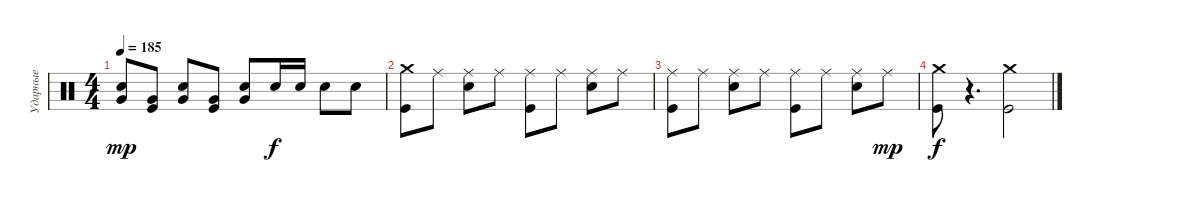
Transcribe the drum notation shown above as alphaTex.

\track ("Ударные" "Ударные") {instrument percussion}
\staff {score}
\articulation defaults
\ts (4 4)
\tempo 185
\clef neutral
\ks c
("Very Low Tom (hit)" "Electric Snare (hit)").8{dy mp} ("Very Low Tom (hit)" "Kick (hit)").8 ("Very Low Tom (hit)" "Electric Snare (hit)").8 ("Very Low Tom (hit)" "Kick (hit)").8 ("Very Low Tom (hit)" "Electric Snare (hit)").8 "Electric Snare (hit)".16{dy f} "Electric Snare (hit)".16 "Electric Snare (hit)".8 "Electric Snare (hit)".8 |
("Crash medium (hit)" "Kick (hit)").8 "Ride (middle)".8 ("Ride (middle)" "Electric Snare (hit)").8 "Ride (middle)".8 ("Ride (middle)" "Kick (hit)").8 "Ride (middle)".8 ("Ride (middle)" "Electric Snare (hit)").8 "Ride (middle)".8 |
("Ride (middle)" "Kick (hit)").8 "Ride (middle)".8 ("Ride (middle)" "Electric Snare (hit)").8 "Ride (middle)".8 ("Ride (middle)" "Kick (hit)").8 "Ride (middle)".8 ("Ride (middle)" "Electric Snare (hit)").8 "Ride (middle)".8{dy mp} |
("Crash medium (hit)" "Kick (hit)").8{dy f} r.4{d} ("Crash medium (hit)" "Kick (hit)").2
